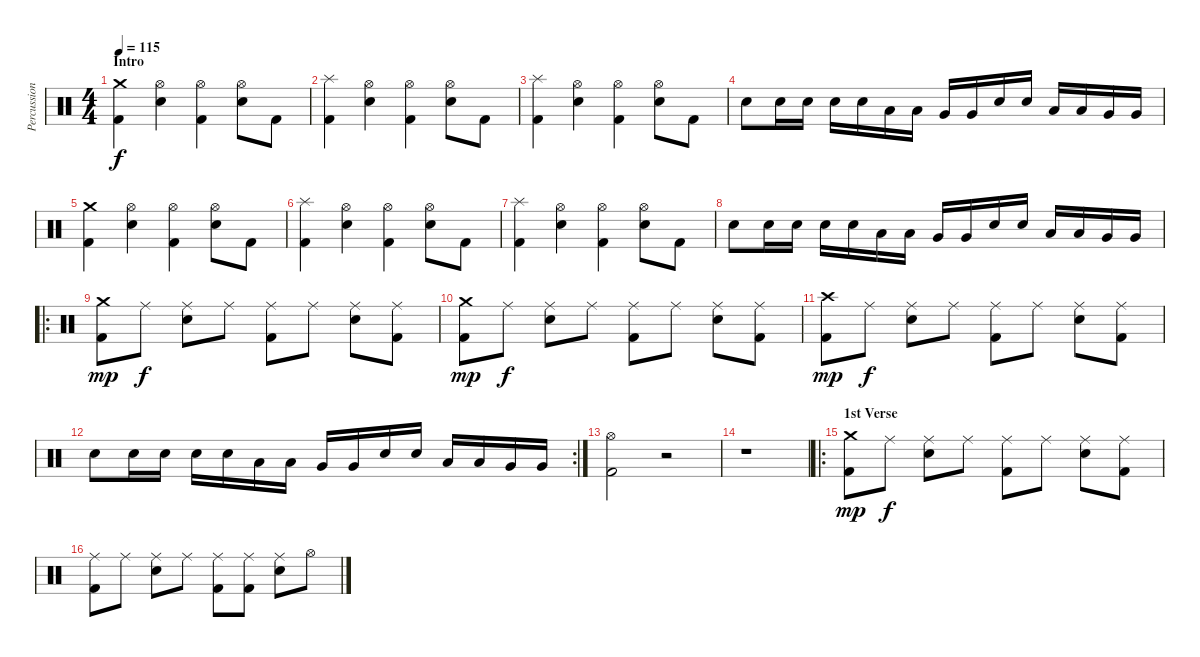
\track ("Percussion" "Percussion") {instrument percussion}
\staff {score}
\articulation defaults
\ts (4 4)
\section ("" "Intro")
\tempo 115
\clef neutral
\ks c
("Kick (hit) 2" "Crash medium (hit)").4{dy f} ("Electric Snare (hit)" "Hi-Hat (open)").4 ("Kick (hit) 2" "Hi-Hat (open)").4 ("Electric Snare (hit)" "Hi-Hat (open)").8 "Kick (hit) 2".8 |
("Kick (hit) 2" "Splash (hit)").4 ("Electric Snare (hit)" "Hi-Hat (open)").4 ("Kick (hit) 2" "Hi-Hat (open)").4 ("Electric Snare (hit)" "Hi-Hat (open)").8 "Kick (hit) 2".8 |
("Kick (hit) 2" "Splash (hit)").4 ("Electric Snare (hit)" "Hi-Hat (open)").4 ("Kick (hit) 2" "Hi-Hat (open)").4 ("Electric Snare (hit)" "Hi-Hat (open)").8 "Kick (hit) 2".8 |
"Electric Snare (hit)".8 "Electric Snare (hit)".16 "Electric Snare (hit)".16 "Electric Snare (hit)".16 "Electric Snare (hit)".16 "Low Tom (hit)".16 "Low Tom (hit)".16 "Very Low Tom (hit)".16 "Very Low Tom (hit)".16 "Electric Snare (hit)".16 "Electric Snare (hit)".16 "Low Tom (hit)".16 "Low Tom (hit)".16 "Very Low Tom (hit)".16 "Very Low Tom (hit)".16 |
("Kick (hit) 2" "Crash medium (hit)").4 ("Electric Snare (hit)" "Hi-Hat (open)").4 ("Kick (hit) 2" "Hi-Hat (open)").4 ("Electric Snare (hit)" "Hi-Hat (open)").8 "Kick (hit) 2".8 |
("Kick (hit) 2" "Splash (hit)").4 ("Electric Snare (hit)" "Hi-Hat (open)").4 ("Kick (hit) 2" "Hi-Hat (open)").4 ("Electric Snare (hit)" "Hi-Hat (open)").8 "Kick (hit) 2".8 |
("Kick (hit) 2" "Splash (hit)").4 ("Electric Snare (hit)" "Hi-Hat (open)").4 ("Kick (hit) 2" "Hi-Hat (open)").4 ("Electric Snare (hit)" "Hi-Hat (open)").8 "Kick (hit) 2".8 |
"Electric Snare (hit)".8 "Electric Snare (hit)".16 "Electric Snare (hit)".16 "Electric Snare (hit)".16 "Electric Snare (hit)".16 "Low Tom (hit)".16 "Low Tom (hit)".16 "Very Low Tom (hit)".16 "Very Low Tom (hit)".16 "Electric Snare (hit)".16 "Electric Snare (hit)".16 "Low Tom (hit)".16 "Low Tom (hit)".16 "Very Low Tom (hit)".16 "Very Low Tom (hit)".16 |
\ro
("Kick (hit) 2" "Crash medium (hit)").8{dy mp} "Ride (middle)".8{dy f} ("Electric Snare (hit)" "Ride (middle)").8 "Ride (middle)".8 ("Kick (hit) 2" "Ride (middle)").8 "Ride (middle)".8 ("Electric Snare (hit)" "Ride (middle)").8 ("Kick (hit) 2" "Ride (middle)").8 |
("Kick (hit) 2" "Crash medium (hit)").8{dy mp} "Ride (middle)".8{dy f} ("Electric Snare (hit)" "Ride (middle)").8 "Ride (middle)".8 ("Kick (hit) 2" "Ride (middle)").8 "Ride (middle)".8 ("Electric Snare (hit)" "Ride (middle)").8 ("Kick (hit) 2" "Ride (middle)").8 |
("Kick (hit) 2" "Crash high (hit)").8{dy mp} "Ride (middle)".8{dy f} ("Electric Snare (hit)" "Ride (middle)").8 "Ride (middle)".8 ("Kick (hit) 2" "Ride (middle)").8 "Ride (middle)".8 ("Electric Snare (hit)" "Ride (middle)").8 ("Kick (hit) 2" "Ride (middle)").8 |
\rc 2 "Electric Snare (hit)".8 "Electric Snare (hit)".16 "Electric Snare (hit)".16 "Electric Snare (hit)".16 "Electric Snare (hit)".16 "Low Tom (hit)".16 "Low Tom (hit)".16 "Very Low Tom (hit)".16 "Very Low Tom (hit)".16 "Electric Snare (hit)".16 "Electric Snare (hit)".16 "Low Tom (hit)".16 "Low Tom (hit)".16 "Very Low Tom (hit)".16 "Very Low Tom (hit)".16
|
("Kick (hit) 2" "Hi-Hat (open)").2 r.2 |
r.1 |
\ro
\section ("" "1st Verse")
("Kick (hit) 2" "Crash medium (hit)").8{dy mp} "Ride (middle)".8{dy f} ("Electric Snare (hit)" "Ride (middle)").8 "Ride (middle)".8 ("Kick (hit) 2" "Ride (middle)").8 "Ride (middle)".8 ("Electric Snare (hit)" "Ride (middle)").8 ("Kick (hit) 2" "Ride (middle)").8 |
("Kick (hit) 2" "Ride (middle)").8 "Ride (middle)".8 ("Electric Snare (hit)" "Ride (middle)").8 "Ride (middle)".8 ("Kick (hit) 2" "Ride (middle)").8 ("Kick (hit) 2" "Ride (middle)").8 ("Electric Snare (hit)" "Ride (middle)").8 "Hi-Hat (open)".8
